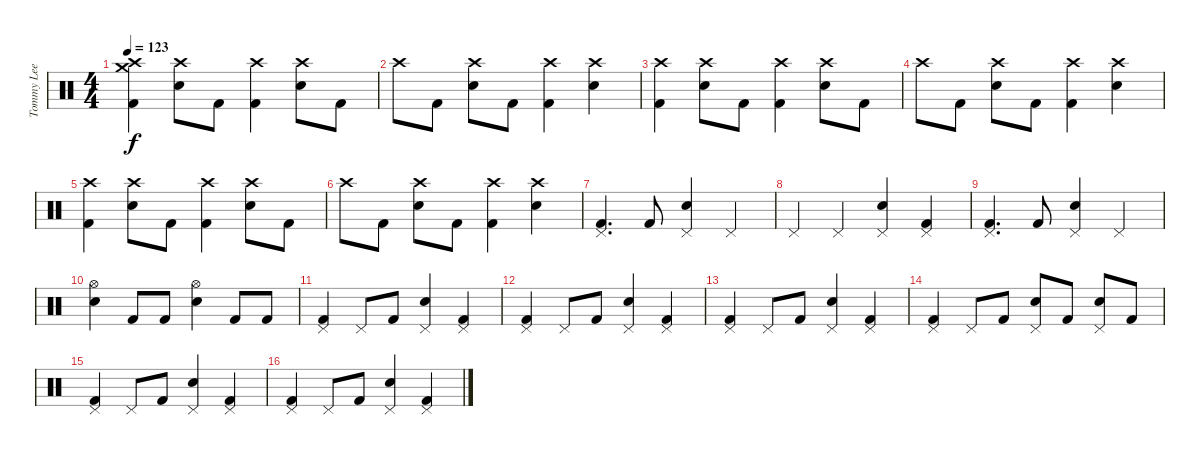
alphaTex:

\track ("Tommy Lee" "Tommy Lee") {instrument percussion}
\staff {score}
\articulation defaults
\ts (4 4)
\tempo 123
\clef neutral
\ks c
("Crash high (hit)" "Crash medium (hit)" "Kick (hit) 2").4{dy f} ("Crash high (hit)" "Snare (hit) 2").8 "Kick (hit) 2".8 ("Crash high (hit)" "Kick (hit) 2").4 ("Crash high (hit)" "Snare (hit) 2").8 "Kick (hit) 2".8 |
"Crash high (hit)".8 "Kick (hit) 2".8 ("Crash high (hit)" "Snare (hit) 2").8 "Kick (hit) 2".8 ("Crash high (hit)" "Kick (hit) 2").4 ("Crash high (hit)" "Snare (hit) 2").4 |
("Crash high (hit)" "Kick (hit) 2").4 ("Crash high (hit)" "Snare (hit) 2").8 "Kick (hit) 2".8 ("Crash high (hit)" "Kick (hit) 2").4 ("Crash high (hit)" "Snare (hit) 2").8 "Kick (hit) 2".8 |
"Crash high (hit)".8 "Kick (hit) 2".8 ("Crash high (hit)" "Snare (hit) 2").8 "Kick (hit) 2".8 ("Crash high (hit)" "Kick (hit) 2").4 ("Crash high (hit)" "Snare (hit) 2").4 |
("Crash high (hit)" "Kick (hit) 2").4 ("Crash high (hit)" "Snare (hit) 2").8 "Kick (hit) 2".8 ("Crash high (hit)" "Kick (hit) 2").4 ("Crash high (hit)" "Snare (hit) 2").8 "Kick (hit) 2".8 |
"Crash high (hit)".8 "Kick (hit) 2".8 ("Crash high (hit)" "Snare (hit) 2").8 "Kick (hit) 2".8 ("Crash high (hit)" "Kick (hit) 2").4 ("Crash high (hit)" "Snare (hit) 2").4 |
("Pedal Hi-Hat (hit)" "Kick (hit) 2").4{d} "Kick (hit) 2".8 ("Pedal Hi-Hat (hit)" "Snare (hit) 2").4 "Pedal Hi-Hat (hit)".4 |
"Pedal Hi-Hat (hit)".4 "Pedal Hi-Hat (hit)".4 ("Pedal Hi-Hat (hit)" "Snare (hit) 2").4 ("Pedal Hi-Hat (hit)" "Kick (hit) 2").4 |
("Pedal Hi-Hat (hit)" "Kick (hit) 2").4{d} "Kick (hit) 2".8 ("Pedal Hi-Hat (hit)" "Snare (hit) 2").4 "Pedal Hi-Hat (hit)".4 |
("Hi-Hat (open)" "Snare (hit) 2").4 "Kick (hit) 2".8 "Kick (hit) 2".8 ("Hi-Hat (open)" "Snare (hit) 2").4 "Kick (hit) 2".8 "Kick (hit) 2".8 |
("Pedal Hi-Hat (hit)" "Kick (hit) 2").4 "Pedal Hi-Hat (hit)".8 "Kick (hit) 2".8 ("Pedal Hi-Hat (hit)" "Snare (hit) 2").4 ("Pedal Hi-Hat (hit)" "Kick (hit) 2").4 |
("Pedal Hi-Hat (hit)" "Kick (hit) 2").4 "Pedal Hi-Hat (hit)".8 "Kick (hit) 2".8 ("Pedal Hi-Hat (hit)" "Snare (hit) 2").4 ("Pedal Hi-Hat (hit)" "Kick (hit) 2").4 |
("Pedal Hi-Hat (hit)" "Kick (hit) 2").4 "Pedal Hi-Hat (hit)".8 "Kick (hit) 2".8 ("Pedal Hi-Hat (hit)" "Snare (hit) 2").4 ("Pedal Hi-Hat (hit)" "Kick (hit) 2").4 |
("Pedal Hi-Hat (hit)" "Kick (hit) 2").4 "Pedal Hi-Hat (hit)".8 "Kick (hit) 2".8 ("Pedal Hi-Hat (hit)" "Snare (hit) 2").8 "Kick (hit) 2".8 ("Pedal Hi-Hat (hit)" "Snare (hit) 2").8 "Kick (hit) 2".8 |
("Pedal Hi-Hat (hit)" "Kick (hit) 2").4 "Pedal Hi-Hat (hit)".8 "Kick (hit) 2".8 ("Pedal Hi-Hat (hit)" "Snare (hit) 2").4 ("Pedal Hi-Hat (hit)" "Kick (hit) 2").4 |
("Pedal Hi-Hat (hit)" "Kick (hit) 2").4 "Pedal Hi-Hat (hit)".8 "Kick (hit) 2".8 ("Pedal Hi-Hat (hit)" "Snare (hit) 2").4 ("Pedal Hi-Hat (hit)" "Kick (hit) 2").4
